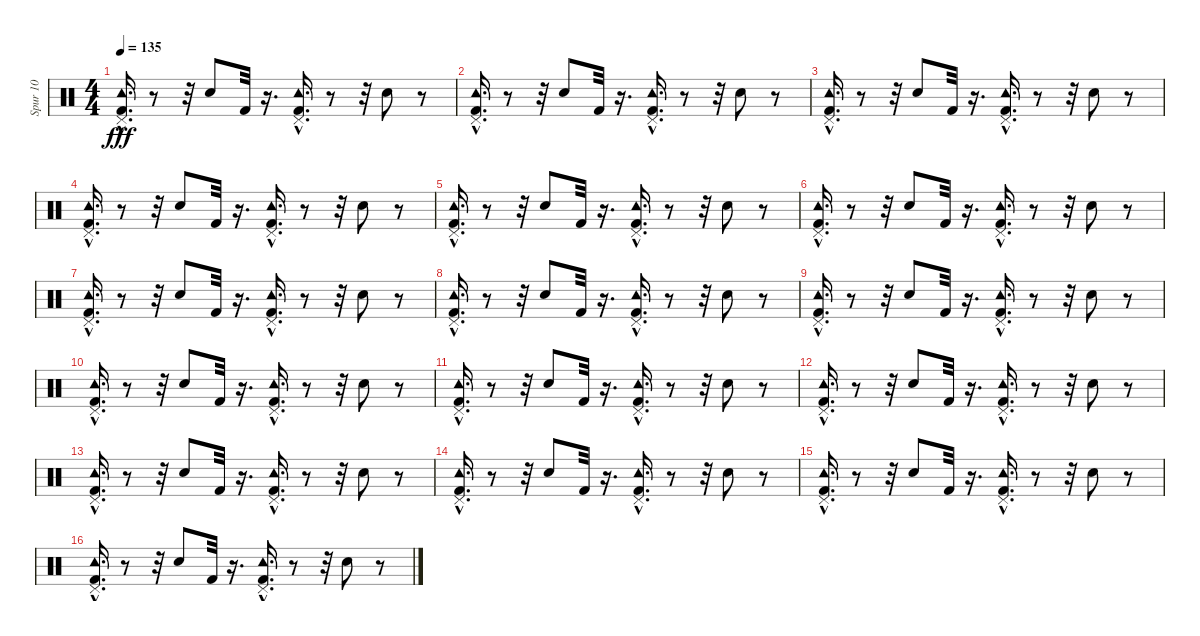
\track ("Spur 10" "Spur 10") {instrument percussion}
\staff {score}
\articulation defaults
\ts (4 4)
\tempo 135
\clef neutral
\ks c
("Pedal Hi-Hat (hit)" "Tambourine (hit)" "Kick (hit) 2"{hac}).16{d dy fff} r.8 r.32 "Electric Snare (hit)".8 "Kick (hit) 2".32 r.16{d} ("Kick (hit) 2"{hac} "Tambourine (hit)" "Pedal Hi-Hat (hit)").16{d} r.8 r.32 "Electric Snare (hit)".8 r.8 |
("Pedal Hi-Hat (hit)" "Kick (hit) 2"{hac} "Tambourine (hit)").16{d} r.8 r.32 "Electric Snare (hit)".8 "Kick (hit) 2".32 r.16{d} ("Pedal Hi-Hat (hit)" "Kick (hit) 2"{hac} "Tambourine (hit)").16{d} r.8 r.32 "Electric Snare (hit)".8 r.8 |
("Pedal Hi-Hat (hit)" "Kick (hit) 2"{hac} "Tambourine (hit)").16{d} r.8 r.32 "Electric Snare (hit)".8 "Kick (hit) 2".32 r.16{d} ("Tambourine (hit)" "Pedal Hi-Hat (hit)" "Kick (hit) 2"{hac}).16{d} r.8 r.32 "Electric Snare (hit)".8 r.8 |
("Kick (hit) 2"{hac} "Pedal Hi-Hat (hit)" "Tambourine (hit)").16{d} r.8 r.32 "Electric Snare (hit)".8 "Kick (hit) 2".32 r.16{d} ("Kick (hit) 2"{hac} "Pedal Hi-Hat (hit)" "Tambourine (hit)").16{d} r.8 r.32 "Electric Snare (hit)".8 r.8 |
("Pedal Hi-Hat (hit)" "Kick (hit) 2"{hac} "Tambourine (hit)").16{d} r.8 r.32 "Electric Snare (hit)".8 "Kick (hit) 2".32 r.16{d} ("Pedal Hi-Hat (hit)" "Kick (hit) 2"{hac} "Tambourine (hit)").16{d} r.8 r.32 "Electric Snare (hit)".8 r.8 |
("Pedal Hi-Hat (hit)" "Kick (hit) 2"{hac} "Tambourine (hit)").16{d} r.8 r.32 "Electric Snare (hit)".8 "Kick (hit) 2".32 r.16{d} ("Tambourine (hit)" "Pedal Hi-Hat (hit)" "Kick (hit) 2"{hac}).16{d} r.8 r.32 "Electric Snare (hit)".8 r.8 |
("Pedal Hi-Hat (hit)" "Kick (hit) 2"{hac} "Tambourine (hit)").16{d} r.8 r.32 "Electric Snare (hit)".8 "Kick (hit) 2".32 r.16{d} ("Tambourine (hit)" "Pedal Hi-Hat (hit)" "Kick (hit) 2"{hac}).16{d} r.8 r.32 "Electric Snare (hit)".8 r.8 |
("Tambourine (hit)" "Pedal Hi-Hat (hit)" "Kick (hit) 2"{hac}).16{d} r.8 r.32 "Electric Snare (hit)".8 "Kick (hit) 2".32 r.16{d} ("Pedal Hi-Hat (hit)" "Kick (hit) 2"{hac} "Tambourine (hit)").16{d} r.8 r.32 "Electric Snare (hit)".8 r.8 |
("Pedal Hi-Hat (hit)" "Tambourine (hit)" "Kick (hit) 2"{hac}).16{d} r.8 r.32 "Electric Snare (hit)".8 "Kick (hit) 2".32 r.16{d} ("Tambourine (hit)" "Kick (hit) 2"{hac} "Pedal Hi-Hat (hit)").16{d} r.8 r.32 "Electric Snare (hit)".8 r.8 |
("Tambourine (hit)" "Pedal Hi-Hat (hit)" "Kick (hit) 2"{hac}).16{d} r.8 r.32 "Electric Snare (hit)".8 "Kick (hit) 2".32 r.16{d} ("Kick (hit) 2"{hac} "Tambourine (hit)" "Pedal Hi-Hat (hit)").16{d} r.8 r.32 "Electric Snare (hit)".8 r.8 |
("Tambourine (hit)" "Pedal Hi-Hat (hit)" "Kick (hit) 2"{hac}).16{d} r.8 r.32 "Electric Snare (hit)".8 "Kick (hit) 2".32 r.16{d} ("Kick (hit) 2"{hac} "Pedal Hi-Hat (hit)" "Tambourine (hit)").16{d} r.8 r.32 "Electric Snare (hit)".8 r.8 |
("Kick (hit) 2"{hac} "Tambourine (hit)" "Pedal Hi-Hat (hit)").16{d} r.8 r.32 "Electric Snare (hit)".8 "Kick (hit) 2".32 r.16{d} ("Tambourine (hit)" "Kick (hit) 2"{hac} "Pedal Hi-Hat (hit)").16{d} r.8 r.32 "Electric Snare (hit)".8 r.8 |
("Pedal Hi-Hat (hit)" "Tambourine (hit)" "Kick (hit) 2"{hac}).16{d} r.8 r.32 "Electric Snare (hit)".8 "Kick (hit) 2".32 r.16{d} ("Kick (hit) 2"{hac} "Tambourine (hit)" "Pedal Hi-Hat (hit)").16{d} r.8 r.32 "Electric Snare (hit)".8 r.8 |
("Kick (hit) 2"{hac} "Pedal Hi-Hat (hit)" "Tambourine (hit)").16{d} r.8 r.32 "Electric Snare (hit)".8 "Kick (hit) 2".32 r.16{d} ("Tambourine (hit)" "Pedal Hi-Hat (hit)" "Kick (hit) 2"{hac}).16{d} r.8 r.32 "Electric Snare (hit)".8 r.8 |
("Tambourine (hit)" "Pedal Hi-Hat (hit)" "Kick (hit) 2"{hac}).16{d} r.8 r.32 "Electric Snare (hit)".8 "Kick (hit) 2".32 r.16{d} ("Tambourine (hit)" "Pedal Hi-Hat (hit)" "Kick (hit) 2"{hac}).16{d} r.8 r.32 "Electric Snare (hit)".8 r.8 |
("Pedal Hi-Hat (hit)" "Kick (hit) 2"{hac} "Tambourine (hit)").16{d} r.8 r.32 "Electric Snare (hit)".8 "Kick (hit) 2".32 r.16{d} ("Kick (hit) 2"{hac} "Pedal Hi-Hat (hit)" "Tambourine (hit)").16{d} r.8 r.32 "Electric Snare (hit)".8 r.8
